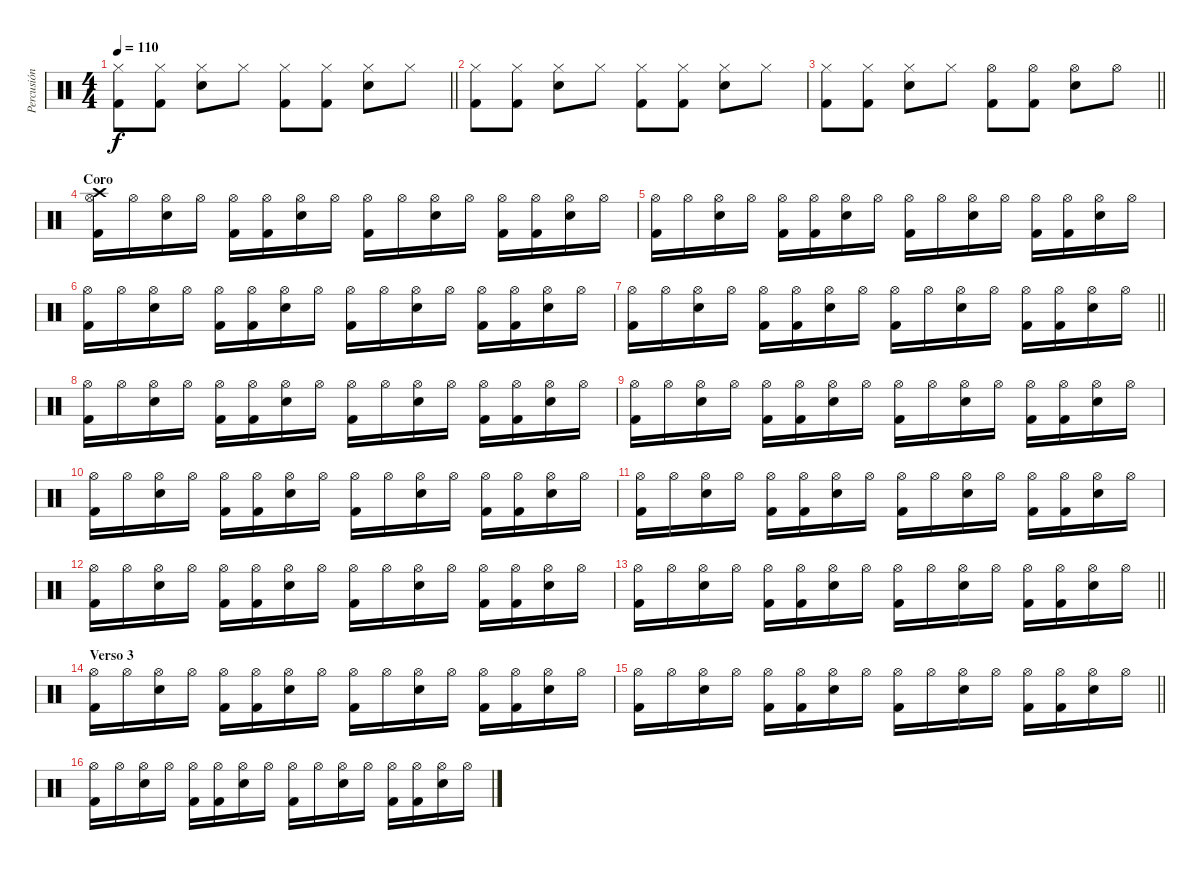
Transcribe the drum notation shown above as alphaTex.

\track ("Percusión" "Percusión") {instrument percussion}
\staff {score}
\articulation defaults
\ts (4 4)
\tempo 110
\clef neutral
\barLineRight lightlight
\ks c
("Hi-Hat (closed)" "Kick (hit) 2").8{dy f} ("Hi-Hat (closed)" "Kick (hit) 2").8 ("Hi-Hat (closed)" "Snare (hit) 2").8 "Hi-Hat (closed)".8 ("Hi-Hat (closed)" "Kick (hit) 2").8 ("Hi-Hat (closed)" "Kick (hit) 2").8 ("Hi-Hat (closed)" "Snare (hit) 2").8 "Hi-Hat (closed)".8 |
\section ("" "")
("Hi-Hat (closed)" "Kick (hit) 2").8 ("Hi-Hat (closed)" "Kick (hit) 2").8 ("Hi-Hat (closed)" "Snare (hit) 2").8 "Hi-Hat (closed)".8 ("Hi-Hat (closed)" "Kick (hit) 2").8 ("Hi-Hat (closed)" "Kick (hit) 2").8 ("Hi-Hat (closed)" "Snare (hit) 2").8 "Hi-Hat (closed)".8 |
\barLineRight lightlight
("Hi-Hat (closed)" "Kick (hit) 2").8 ("Hi-Hat (closed)" "Kick (hit) 2").8 ("Hi-Hat (closed)" "Snare (hit) 2").8 "Hi-Hat (closed)".8 ("Hi-Hat (open)" "Kick (hit) 2").8 ("Hi-Hat (open)" "Kick (hit) 2").8 ("Hi-Hat (open)" "Snare (hit) 2").8 "Hi-Hat (open)".8 |
\section ("" "Coro")
("Crash high (hit)" "Hi-Hat (open)" "Kick (hit) 2").16 "Hi-Hat (open)".16 ("Hi-Hat (open)" "Snare (hit) 2").16 "Hi-Hat (open)".16 ("Hi-Hat (open)" "Kick (hit) 2").16 ("Hi-Hat (open)" "Kick (hit) 2").16 ("Hi-Hat (open)" "Snare (hit) 2").16 "Hi-Hat (open)".16 ("Hi-Hat (open)" "Kick (hit) 2").16 "Hi-Hat (open)".16 ("Hi-Hat (open)" "Snare (hit) 2").16 "Hi-Hat (open)".16 ("Hi-Hat (open)" "Kick (hit) 2").16 ("Hi-Hat (open)" "Kick (hit) 2").16 ("Hi-Hat (open)" "Snare (hit) 2").16 "Hi-Hat (open)".16 |
("Hi-Hat (open)" "Kick (hit) 2").16 "Hi-Hat (open)".16 ("Hi-Hat (open)" "Snare (hit) 2").16 "Hi-Hat (open)".16 ("Hi-Hat (open)" "Kick (hit) 2").16 ("Hi-Hat (open)" "Kick (hit) 2").16 ("Hi-Hat (open)" "Snare (hit) 2").16 "Hi-Hat (open)".16 ("Hi-Hat (open)" "Kick (hit) 2").16 "Hi-Hat (open)".16 ("Hi-Hat (open)" "Snare (hit) 2").16 "Hi-Hat (open)".16 ("Hi-Hat (open)" "Kick (hit) 2").16 ("Hi-Hat (open)" "Kick (hit) 2").16 ("Hi-Hat (open)" "Snare (hit) 2").16 "Hi-Hat (open)".16 |
("Hi-Hat (open)" "Kick (hit) 2").16 "Hi-Hat (open)".16 ("Hi-Hat (open)" "Snare (hit) 2").16 "Hi-Hat (open)".16 ("Hi-Hat (open)" "Kick (hit) 2").16 ("Hi-Hat (open)" "Kick (hit) 2").16 ("Hi-Hat (open)" "Snare (hit) 2").16 "Hi-Hat (open)".16 ("Hi-Hat (open)" "Kick (hit) 2").16 "Hi-Hat (open)".16 ("Hi-Hat (open)" "Snare (hit) 2").16 "Hi-Hat (open)".16 ("Hi-Hat (open)" "Kick (hit) 2").16 ("Hi-Hat (open)" "Kick (hit) 2").16 ("Hi-Hat (open)" "Snare (hit) 2").16 "Hi-Hat (open)".16 |
\barLineRight lightlight
("Hi-Hat (open)" "Kick (hit) 2").16 "Hi-Hat (open)".16 ("Hi-Hat (open)" "Snare (hit) 2").16 "Hi-Hat (open)".16 ("Hi-Hat (open)" "Kick (hit) 2").16 ("Hi-Hat (open)" "Kick (hit) 2").16 ("Hi-Hat (open)" "Snare (hit) 2").16 "Hi-Hat (open)".16 ("Hi-Hat (open)" "Kick (hit) 2").16 "Hi-Hat (open)".16 ("Hi-Hat (open)" "Snare (hit) 2").16 "Hi-Hat (open)".16 ("Hi-Hat (open)" "Kick (hit) 2").16 ("Hi-Hat (open)" "Kick (hit) 2").16 ("Hi-Hat (open)" "Snare (hit) 2").16 "Hi-Hat (open)".16 |
\section ("" "")
("Hi-Hat (open)" "Kick (hit) 2").16 "Hi-Hat (open)".16 ("Hi-Hat (open)" "Snare (hit) 2").16 "Hi-Hat (open)".16 ("Hi-Hat (open)" "Kick (hit) 2").16 ("Hi-Hat (open)" "Kick (hit) 2").16 ("Hi-Hat (open)" "Snare (hit) 2").16 "Hi-Hat (open)".16 ("Hi-Hat (open)" "Kick (hit) 2").16 "Hi-Hat (open)".16 ("Hi-Hat (open)" "Snare (hit) 2").16 "Hi-Hat (open)".16 ("Hi-Hat (open)" "Kick (hit) 2").16 ("Hi-Hat (open)" "Kick (hit) 2").16 ("Hi-Hat (open)" "Snare (hit) 2").16 "Hi-Hat (open)".16 |
("Hi-Hat (open)" "Kick (hit) 2").16 "Hi-Hat (open)".16 ("Hi-Hat (open)" "Snare (hit) 2").16 "Hi-Hat (open)".16 ("Hi-Hat (open)" "Kick (hit) 2").16 ("Hi-Hat (open)" "Kick (hit) 2").16 ("Hi-Hat (open)" "Snare (hit) 2").16 "Hi-Hat (open)".16 ("Hi-Hat (open)" "Kick (hit) 2").16 "Hi-Hat (open)".16 ("Hi-Hat (open)" "Snare (hit) 2").16 "Hi-Hat (open)".16 ("Hi-Hat (open)" "Kick (hit) 2").16 ("Hi-Hat (open)" "Kick (hit) 2").16 ("Hi-Hat (open)" "Snare (hit) 2").16 "Hi-Hat (open)".16 |
("Hi-Hat (open)" "Kick (hit) 2").16 "Hi-Hat (open)".16 ("Hi-Hat (open)" "Snare (hit) 2").16 "Hi-Hat (open)".16 ("Hi-Hat (open)" "Kick (hit) 2").16 ("Hi-Hat (open)" "Kick (hit) 2").16 ("Hi-Hat (open)" "Snare (hit) 2").16 "Hi-Hat (open)".16 ("Hi-Hat (open)" "Kick (hit) 2").16 "Hi-Hat (open)".16 ("Hi-Hat (open)" "Snare (hit) 2").16 "Hi-Hat (open)".16 ("Hi-Hat (open)" "Kick (hit) 2").16 ("Hi-Hat (open)" "Kick (hit) 2").16 ("Hi-Hat (open)" "Snare (hit) 2").16 "Hi-Hat (open)".16 |
("Hi-Hat (open)" "Kick (hit) 2").16 "Hi-Hat (open)".16 ("Hi-Hat (open)" "Snare (hit) 2").16 "Hi-Hat (open)".16 ("Hi-Hat (open)" "Kick (hit) 2").16 ("Hi-Hat (open)" "Kick (hit) 2").16 ("Hi-Hat (open)" "Snare (hit) 2").16 "Hi-Hat (open)".16 ("Hi-Hat (open)" "Kick (hit) 2").16 "Hi-Hat (open)".16 ("Hi-Hat (open)" "Snare (hit) 2").16 "Hi-Hat (open)".16 ("Hi-Hat (open)" "Kick (hit) 2").16 ("Hi-Hat (open)" "Kick (hit) 2").16 ("Hi-Hat (open)" "Snare (hit) 2").16 "Hi-Hat (open)".16 |
("Hi-Hat (open)" "Kick (hit) 2").16 "Hi-Hat (open)".16 ("Hi-Hat (open)" "Snare (hit) 2").16 "Hi-Hat (open)".16 ("Hi-Hat (open)" "Kick (hit) 2").16 ("Hi-Hat (open)" "Kick (hit) 2").16 ("Hi-Hat (open)" "Snare (hit) 2").16 "Hi-Hat (open)".16 ("Hi-Hat (open)" "Kick (hit) 2").16 "Hi-Hat (open)".16 ("Hi-Hat (open)" "Snare (hit) 2").16 "Hi-Hat (open)".16 ("Hi-Hat (open)" "Kick (hit) 2").16 ("Hi-Hat (open)" "Kick (hit) 2").16 ("Hi-Hat (open)" "Snare (hit) 2").16 "Hi-Hat (open)".16 |
\barLineRight lightlight
("Hi-Hat (open)" "Kick (hit) 2").16 "Hi-Hat (open)".16 ("Hi-Hat (open)" "Snare (hit) 2").16 "Hi-Hat (open)".16 ("Hi-Hat (open)" "Kick (hit) 2").16 ("Hi-Hat (open)" "Kick (hit) 2").16 ("Hi-Hat (open)" "Snare (hit) 2").16 "Hi-Hat (open)".16 ("Hi-Hat (open)" "Kick (hit) 2").16 "Hi-Hat (open)".16 ("Hi-Hat (open)" "Snare (hit) 2").16 "Hi-Hat (open)".16 ("Hi-Hat (open)" "Kick (hit) 2").16 ("Hi-Hat (open)" "Kick (hit) 2").16 ("Hi-Hat (open)" "Snare (hit) 2").16 "Hi-Hat (open)".16 |
\section ("" "Verso 3")
("Hi-Hat (open)" "Kick (hit) 2").16 "Hi-Hat (open)".16 ("Hi-Hat (open)" "Snare (hit) 2").16 "Hi-Hat (open)".16 ("Hi-Hat (open)" "Kick (hit) 2").16 ("Hi-Hat (open)" "Kick (hit) 2").16 ("Hi-Hat (open)" "Snare (hit) 2").16 "Hi-Hat (open)".16 ("Hi-Hat (open)" "Kick (hit) 2").16 "Hi-Hat (open)".16 ("Hi-Hat (open)" "Snare (hit) 2").16 "Hi-Hat (open)".16 ("Hi-Hat (open)" "Kick (hit) 2").16 ("Hi-Hat (open)" "Kick (hit) 2").16 ("Hi-Hat (open)" "Snare (hit) 2").16 "Hi-Hat (open)".16 |
\barLineRight lightlight
("Hi-Hat (open)" "Kick (hit) 2").16 "Hi-Hat (open)".16 ("Hi-Hat (open)" "Snare (hit) 2").16 "Hi-Hat (open)".16 ("Hi-Hat (open)" "Kick (hit) 2").16 ("Hi-Hat (open)" "Kick (hit) 2").16 ("Hi-Hat (open)" "Snare (hit) 2").16 "Hi-Hat (open)".16 ("Hi-Hat (open)" "Kick (hit) 2").16 "Hi-Hat (open)".16 ("Hi-Hat (open)" "Snare (hit) 2").16 "Hi-Hat (open)".16 ("Hi-Hat (open)" "Kick (hit) 2").16 ("Hi-Hat (open)" "Kick (hit) 2").16 ("Hi-Hat (open)" "Snare (hit) 2").16 "Hi-Hat (open)".16 |
\section ("" "")
("Hi-Hat (open)" "Kick (hit) 2").16 "Hi-Hat (open)".16 ("Hi-Hat (open)" "Snare (hit) 2").16 "Hi-Hat (open)".16 ("Hi-Hat (open)" "Kick (hit) 2").16 ("Hi-Hat (open)" "Kick (hit) 2").16 ("Hi-Hat (open)" "Snare (hit) 2").16 "Hi-Hat (open)".16 ("Hi-Hat (open)" "Kick (hit) 2").16 "Hi-Hat (open)".16 ("Hi-Hat (open)" "Snare (hit) 2").16 "Hi-Hat (open)".16 ("Hi-Hat (open)" "Kick (hit) 2").16 ("Hi-Hat (open)" "Kick (hit) 2").16 ("Hi-Hat (open)" "Snare (hit) 2").16 "Hi-Hat (open)".16
